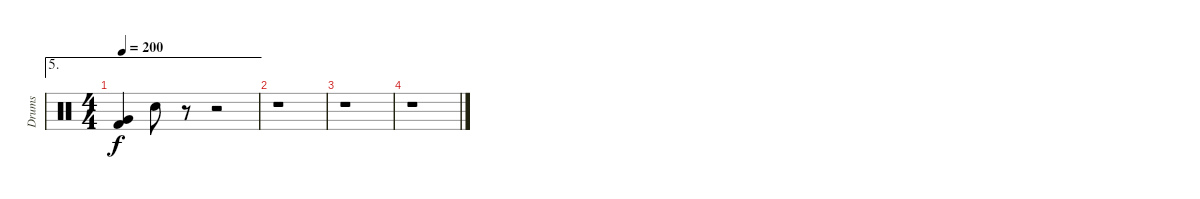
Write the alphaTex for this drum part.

\track ("Drums" "Drums") {instrument percussion}
\staff {score}
\articulation defaults
\ae 5
\ts (4 4)
\tempo 200
\clef neutral
\ks c
("Very Low Tom (hit)" "Kick (hit) 2").4{dy f} "Electric Snare (hit)".8 r.8 r.2 |
r.1 |
r.1 |
r.1
